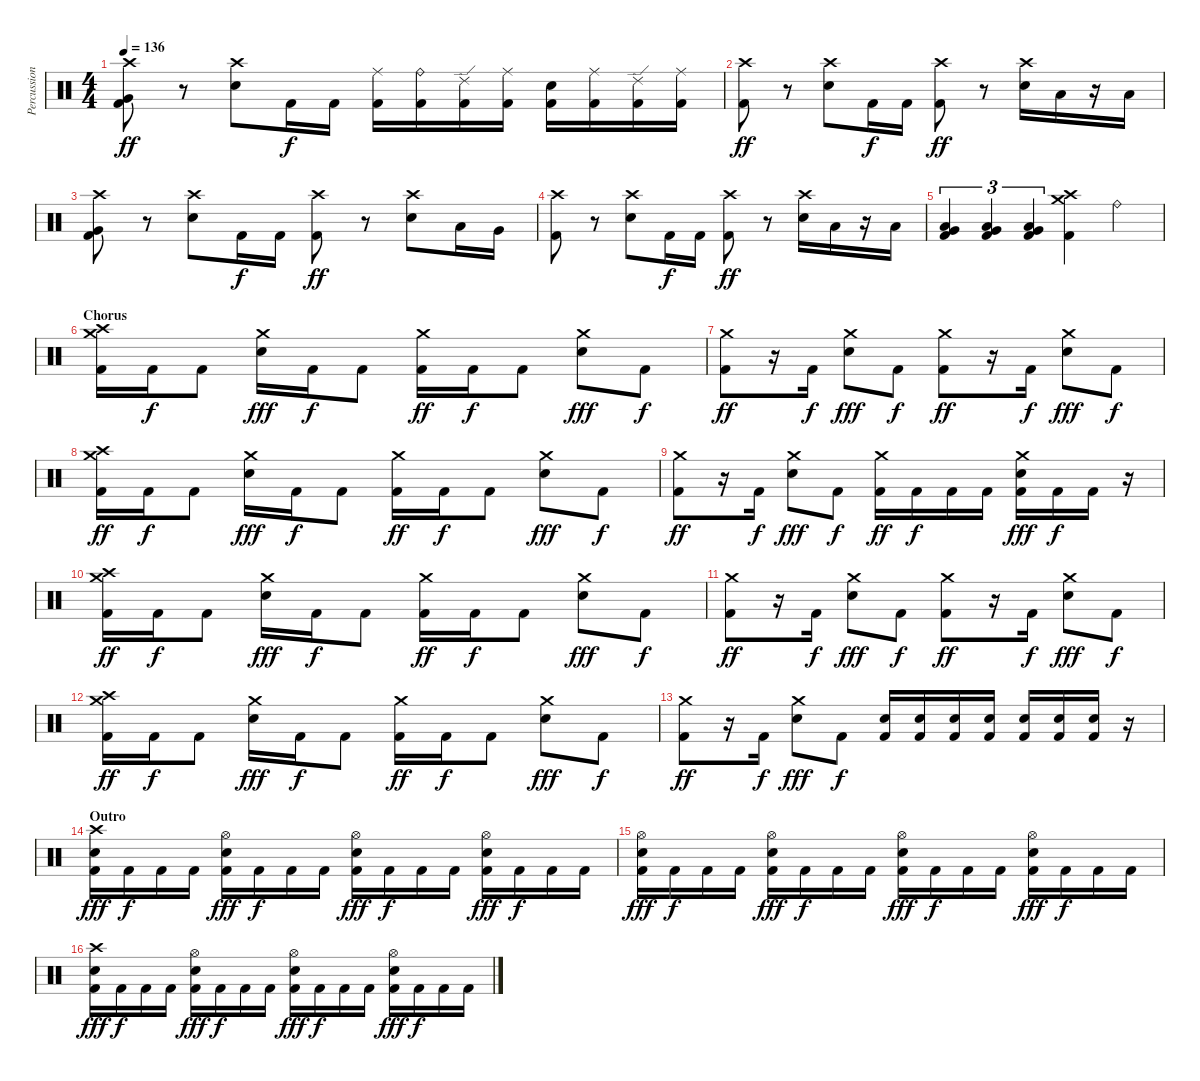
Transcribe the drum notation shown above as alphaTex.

\track ("Percussions" "Percussion") {instrument percussion}
\staff {score}
\articulation defaults
\ts (4 4)
\tempo 136
\clef neutral
\ks c
("Crash high (hit)" "Very Low Tom (hit)" "Kick (hit) 2").8{dy ff} r.8 ("Crash high (hit)" "Electric Snare (hit)").8 "Kick (hit) 2".16{dy f} "Kick (hit) 2".16 ("Ride (middle)" "Kick (hit) 2").16 ("Ride (bell)" "Kick (hit) 2").16 ("Ride (edge) 2" "Kick (hit) 2").16 ("Ride (middle)" "Kick (hit) 2").16 ("Electric Snare (hit)" "Kick (hit) 2").16 ("Ride (middle)" "Kick (hit) 2").16 ("Ride (edge) 2" "Kick (hit) 2").16 ("Ride (middle)" "Kick (hit) 2").16 |
("Crash high (hit)" "Kick (hit) 2").8{dy ff} r.8 ("Crash high (hit)" "Electric Snare (hit)").8 "Kick (hit) 2".16{dy f} "Kick (hit) 2".16 ("Crash high (hit)" "Kick (hit) 2").8{dy ff} r.8 ("Crash high (hit)" "Electric Snare (hit)").16 "Low Tom (hit)".16 r.16 "Low Tom (hit)".16 |
("Crash high (hit)" "Very Low Tom (hit)" "Kick (hit) 2").8 r.8 ("Crash high (hit)" "Electric Snare (hit)").8 "Kick (hit) 2".16{dy f} "Kick (hit) 2".16 ("Crash high (hit)" "Kick (hit) 2").8{dy ff} r.8 ("Crash high (hit)" "Electric Snare (hit)").8 "Low Tom (hit)".16 "Very Low Tom (hit)".16 |
("Crash high (hit)" "Kick (hit) 2").8 r.8 ("Crash high (hit)" "Electric Snare (hit)").8 "Kick (hit) 2".16{dy f} "Kick (hit) 2".16 ("Crash high (hit)" "Kick (hit) 2").8{dy ff} r.8 ("Crash high (hit)" "Electric Snare (hit)").16 "Low Tom (hit)".16 r.16 "Low Tom (hit)".16 |
("Very Low Tom (hit)" "Low Floor Tom (hit)" "Kick (hit) 2").4{tu (3 2)} ("Very Low Tom (hit)" "Low Floor Tom (hit)" "Kick (hit) 2").4{tu (3 2)} ("Very Low Tom (hit)" "Low Floor Tom (hit)" "Kick (hit) 2").4{tu (3 2)} ("Crash medium (hit)" "Crash high (hit)" "Kick (hit) 2").4 "Ride (bell)".4 |
\section ("" "Chorus")
("Crash high (hit)" "Crash medium (hit)" "Kick (hit) 2").16 "Kick (hit) 2".16{dy f} "Kick (hit) 2".8 ("Crash medium (hit)" "Electric Snare (hit)").16{dy fff} "Kick (hit) 2".16{dy f} "Kick (hit) 2".8 ("Crash medium (hit)" "Kick (hit) 2").16{dy ff} "Kick (hit) 2".16{dy f} "Kick (hit) 2".8 ("Crash medium (hit)" "Electric Snare (hit)").8{dy fff} "Kick (hit) 2".8{dy f} |
("Crash medium (hit)" "Kick (hit) 2").8{dy ff} r.16 "Kick (hit) 2".16{dy f} ("Crash medium (hit)" "Electric Snare (hit)").8{dy fff} "Kick (hit) 2".8{dy f} ("Crash medium (hit)" "Kick (hit) 2").8{dy ff} r.16 "Kick (hit) 2".16{dy f} ("Crash medium (hit)" "Electric Snare (hit)").8{dy fff} "Kick (hit) 2".8{dy f} |
("Crash high (hit)" "Crash medium (hit)" "Kick (hit) 2").16{dy ff} "Kick (hit) 2".16{dy f} "Kick (hit) 2".8 ("Crash medium (hit)" "Electric Snare (hit)").16{dy fff} "Kick (hit) 2".16{dy f} "Kick (hit) 2".8 ("Crash medium (hit)" "Kick (hit) 2").16{dy ff} "Kick (hit) 2".16{dy f} "Kick (hit) 2".8 ("Crash medium (hit)" "Electric Snare (hit)").8{dy fff} "Kick (hit) 2".8{dy f} |
("Crash medium (hit)" "Kick (hit) 2").8{dy ff} r.16 "Kick (hit) 2".16{dy f} ("Crash medium (hit)" "Electric Snare (hit)").8{dy fff} "Kick (hit) 2".8{dy f} ("Crash medium (hit)" "Kick (hit) 2").16{dy ff} "Kick (hit) 2".16{dy f} "Kick (hit) 2".16 "Kick (hit) 2".16 ("Crash medium (hit)" "Electric Snare (hit)" "Kick (hit) 2").16{dy fff} "Kick (hit) 2".16{dy f} "Kick (hit) 2".16 r.16 |
("Crash high (hit)" "Crash medium (hit)" "Kick (hit) 2").16{dy ff} "Kick (hit) 2".16{dy f} "Kick (hit) 2".8 ("Crash medium (hit)" "Electric Snare (hit)").16{dy fff} "Kick (hit) 2".16{dy f} "Kick (hit) 2".8 ("Crash medium (hit)" "Kick (hit) 2").16{dy ff} "Kick (hit) 2".16{dy f} "Kick (hit) 2".8 ("Crash medium (hit)" "Electric Snare (hit)").8{dy fff} "Kick (hit) 2".8{dy f} |
("Crash medium (hit)" "Kick (hit) 2").8{dy ff} r.16 "Kick (hit) 2".16{dy f} ("Crash medium (hit)" "Electric Snare (hit)").8{dy fff} "Kick (hit) 2".8{dy f} ("Crash medium (hit)" "Kick (hit) 2").8{dy ff} r.16 "Kick (hit) 2".16{dy f} ("Crash medium (hit)" "Electric Snare (hit)").8{dy fff} "Kick (hit) 2".8{dy f} |
("Crash high (hit)" "Crash medium (hit)" "Kick (hit) 2").16{dy ff} "Kick (hit) 2".16{dy f} "Kick (hit) 2".8 ("Crash medium (hit)" "Electric Snare (hit)").16{dy fff} "Kick (hit) 2".16{dy f} "Kick (hit) 2".8 ("Crash medium (hit)" "Kick (hit) 2").16{dy ff} "Kick (hit) 2".16{dy f} "Kick (hit) 2".8 ("Crash medium (hit)" "Electric Snare (hit)").8{dy fff} "Kick (hit) 2".8{dy f} |
("Crash medium (hit)" "Kick (hit) 2").8{dy ff} r.16 "Kick (hit) 2".16{dy f} ("Crash medium (hit)" "Electric Snare (hit)").8{dy fff} "Kick (hit) 2".8{dy f} ("Electric Snare (hit)" "Kick (hit) 2").16 ("Electric Snare (hit)" "Kick (hit) 2").16 ("Electric Snare (hit)" "Kick (hit) 2").16 ("Electric Snare (hit)" "Kick (hit) 2").16 ("Electric Snare (hit)" "Kick (hit) 2").16 ("Electric Snare (hit)" "Kick (hit) 2").16 ("Electric Snare (hit)" "Kick (hit) 2").16 r.16 |
\section ("" "Outro")
("Crash high (hit)" "Electric Snare (hit)" "Kick (hit) 2").16{dy fff} "Kick (hit) 2".16{dy f} "Kick (hit) 2".16 "Kick (hit) 2".16 ("Hi-Hat (open)" "Electric Snare (hit)" "Kick (hit) 2").16{dy fff} "Kick (hit) 2".16{dy f} "Kick (hit) 2".16 "Kick (hit) 2".16 ("Hi-Hat (open)" "Electric Snare (hit)" "Kick (hit) 2").16{dy fff} "Kick (hit) 2".16{dy f} "Kick (hit) 2".16 "Kick (hit) 2".16 ("Hi-Hat (open)" "Electric Snare (hit)" "Kick (hit) 2").16{dy fff} "Kick (hit) 2".16{dy f} "Kick (hit) 2".16 "Kick (hit) 2".16 |
("Hi-Hat (open)" "Electric Snare (hit)" "Kick (hit) 2").16{dy fff} "Kick (hit) 2".16{dy f} "Kick (hit) 2".16 "Kick (hit) 2".16 ("Hi-Hat (open)" "Electric Snare (hit)" "Kick (hit) 2").16{dy fff} "Kick (hit) 2".16{dy f} "Kick (hit) 2".16 "Kick (hit) 2".16 ("Hi-Hat (open)" "Electric Snare (hit)" "Kick (hit) 2").16{dy fff} "Kick (hit) 2".16{dy f} "Kick (hit) 2".16 "Kick (hit) 2".16 ("Hi-Hat (open)" "Electric Snare (hit)" "Kick (hit) 2").16{dy fff} "Kick (hit) 2".16{dy f} "Kick (hit) 2".16 "Kick (hit) 2".16 |
("Crash high (hit)" "Electric Snare (hit)" "Kick (hit) 2").16{dy fff} "Kick (hit) 2".16{dy f} "Kick (hit) 2".16 "Kick (hit) 2".16 ("Hi-Hat (open)" "Electric Snare (hit)" "Kick (hit) 2").16{dy fff} "Kick (hit) 2".16{dy f} "Kick (hit) 2".16 "Kick (hit) 2".16 ("Hi-Hat (open)" "Electric Snare (hit)" "Kick (hit) 2").16{dy fff} "Kick (hit) 2".16{dy f} "Kick (hit) 2".16 "Kick (hit) 2".16 ("Hi-Hat (open)" "Electric Snare (hit)" "Kick (hit) 2").16{dy fff} "Kick (hit) 2".16{dy f} "Kick (hit) 2".16 "Kick (hit) 2".16
